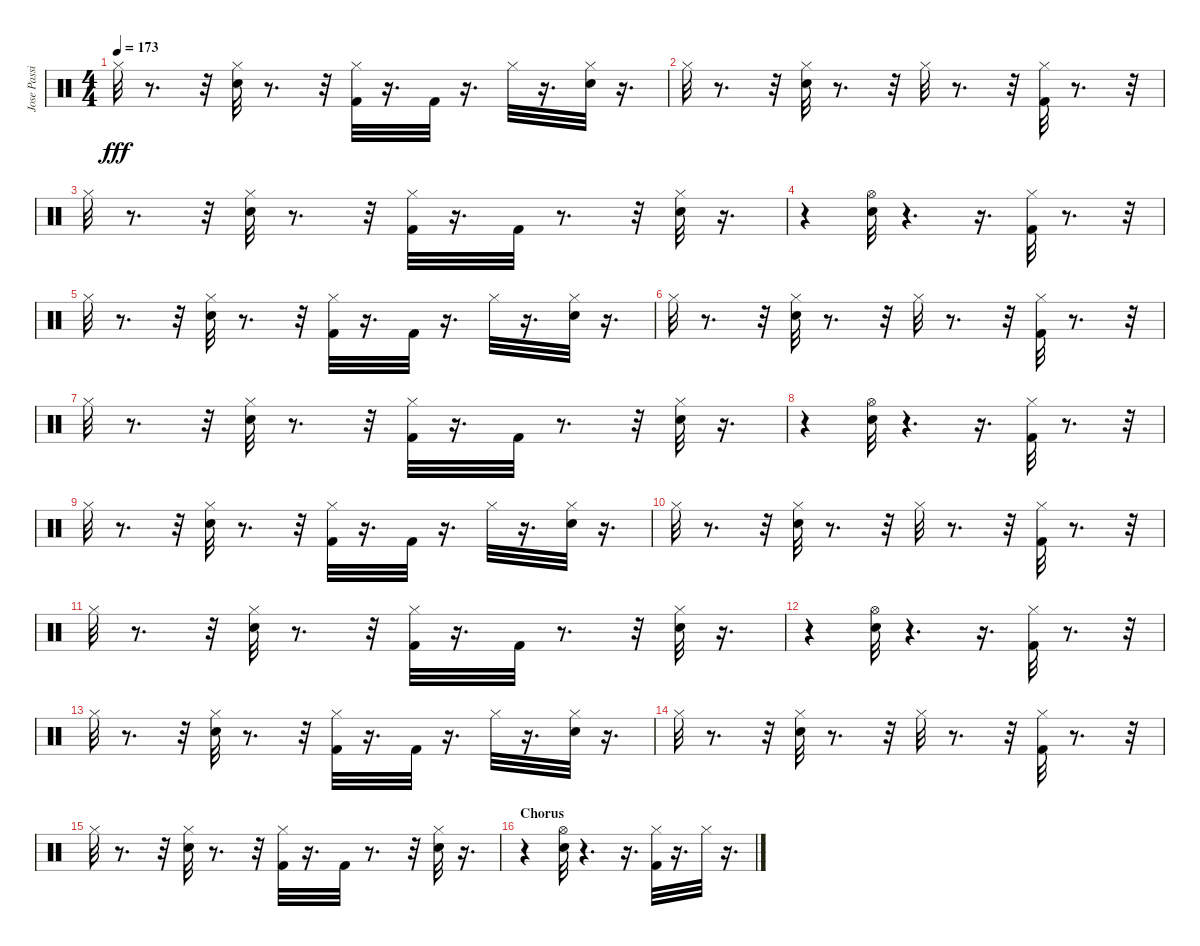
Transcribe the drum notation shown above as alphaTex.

\track ("Jose Passilas-Drums" "Jose Passi") {instrument percussion}
\staff {score}
\articulation defaults
\ts (4 4)
\tempo 173
\clef neutral
\ks c "Hi-Hat (closed)".32{dy fff}
r.8{d} r.32 ("Electric Snare (hit)" "Hi-Hat (closed)").32 r.8{d} r.32 ("Kick (hit) 2" "Hi-Hat (closed)").32 r.16{d} "Kick (hit) 2".32 r.16{d} "Hi-Hat (closed)".32 r.16{d} ("Electric Snare (hit)" "Hi-Hat (closed)").32 r.16{d} |
"Hi-Hat (closed)".32 r.8{d} r.32 ("Electric Snare (hit)" "Hi-Hat (closed)").32 r.8{d} r.32 "Hi-Hat (closed)".32 r.8{d} r.32 ("Kick (hit) 2" "Hi-Hat (closed)").32 r.8{d} r.32 |
"Hi-Hat (closed)".32 r.8{d} r.32 ("Electric Snare (hit)" "Hi-Hat (closed)").32 r.8{d} r.32 ("Kick (hit) 2" "Hi-Hat (closed)").32 r.16{d} "Kick (hit) 2".32 r.8{d} r.32 ("Electric Snare (hit)" "Hi-Hat (closed)").32 r.16{d} |
r.4 ("Electric Snare (hit)" "Hi-Hat (open)").32 r.4{d} r.16{d} ("Hi-Hat (closed)" "Kick (hit) 2").32 r.8{d} r.32 |
"Hi-Hat (closed)".32 r.8{d} r.32 ("Hi-Hat (closed)" "Electric Snare (hit)").32 r.8{d} r.32 ("Hi-Hat (closed)" "Kick (hit) 2").32 r.16{d} "Kick (hit) 2".32 r.16{d} "Hi-Hat (closed)".32 r.16{d} ("Hi-Hat (closed)" "Electric Snare (hit)").32 r.16{d} |
"Hi-Hat (closed)".32 r.8{d} r.32 ("Hi-Hat (closed)" "Electric Snare (hit)").32 r.8{d} r.32 "Hi-Hat (closed)".32 r.8{d} r.32 ("Hi-Hat (closed)" "Kick (hit) 2").32 r.8{d} r.32 |
"Hi-Hat (closed)".32 r.8{d} r.32 ("Hi-Hat (closed)" "Electric Snare (hit)").32 r.8{d} r.32 ("Hi-Hat (closed)" "Kick (hit) 2").32 r.16{d} "Kick (hit) 2".32 r.8{d} r.32 ("Hi-Hat (closed)" "Electric Snare (hit)").32 r.16{d} |
r.4 ("Electric Snare (hit)" "Hi-Hat (open)").32 r.4{d} r.16{d} ("Kick (hit) 2" "Hi-Hat (closed)").32 r.8{d} r.32 |
"Hi-Hat (closed)".32 r.8{d} r.32 ("Electric Snare (hit)" "Hi-Hat (closed)").32 r.8{d} r.32 ("Kick (hit) 2" "Hi-Hat (closed)").32 r.16{d} "Kick (hit) 2".32 r.16{d} "Hi-Hat (closed)".32 r.16{d} ("Electric Snare (hit)" "Hi-Hat (closed)").32 r.16{d} |
"Hi-Hat (closed)".32 r.8{d} r.32 ("Electric Snare (hit)" "Hi-Hat (closed)").32 r.8{d} r.32 "Hi-Hat (closed)".32 r.8{d} r.32 ("Kick (hit) 2" "Hi-Hat (closed)").32 r.8{d} r.32 |
"Hi-Hat (closed)".32 r.8{d} r.32 ("Electric Snare (hit)" "Hi-Hat (closed)").32 r.8{d} r.32 ("Kick (hit) 2" "Hi-Hat (closed)").32 r.16{d} "Kick (hit) 2".32 r.8{d} r.32 ("Electric Snare (hit)" "Hi-Hat (closed)").32 r.16{d} |
r.4 ("Electric Snare (hit)" "Hi-Hat (open)").32 r.4{d} r.16{d} ("Hi-Hat (closed)" "Kick (hit) 2").32 r.8{d} r.32 |
"Hi-Hat (closed)".32 r.8{d} r.32 ("Hi-Hat (closed)" "Electric Snare (hit)").32 r.8{d} r.32 ("Hi-Hat (closed)" "Kick (hit) 2").32 r.16{d} "Kick (hit) 2".32 r.16{d} "Hi-Hat (closed)".32 r.16{d} ("Hi-Hat (closed)" "Electric Snare (hit)").32 r.16{d} |
"Hi-Hat (closed)".32 r.8{d} r.32 ("Hi-Hat (closed)" "Electric Snare (hit)").32 r.8{d} r.32 "Hi-Hat (closed)".32 r.8{d} r.32 ("Hi-Hat (closed)" "Kick (hit) 2").32 r.8{d} r.32 |
"Hi-Hat (closed)".32 r.8{d} r.32 ("Hi-Hat (closed)" "Electric Snare (hit)").32 r.8{d} r.32 ("Hi-Hat (closed)" "Kick (hit) 2").32 r.16{d} "Kick (hit) 2".32 r.8{d} r.32 ("Hi-Hat (closed)" "Electric Snare (hit)").32 r.16{d} |
\section ("" "Chorus")
r.4 ("Electric Snare (hit)" "Hi-Hat (open)").32 r.4{d} r.16{d} ("Hi-Hat (closed)" "Kick (hit) 2").32 r.16{d} "Hi-Hat (closed)".32 r.16{d}
